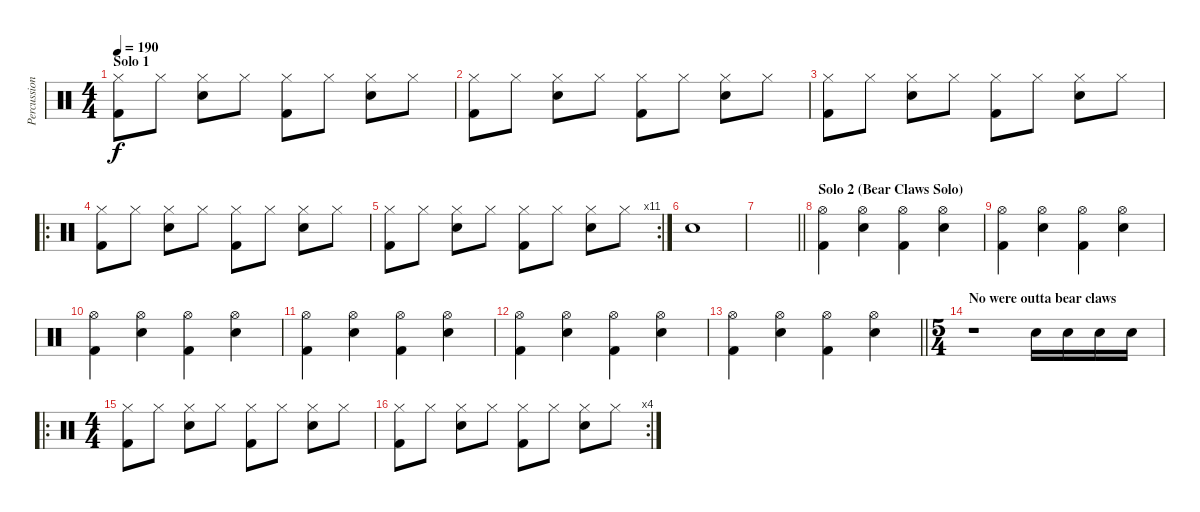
\track ("Percussion" "Percussion") {instrument percussion}
\staff {score}
\articulation defaults
\ts (4 4)
\section ("" "Solo 1")
\tempo 190
\clef neutral
\ks c
("Hi-Hat (closed)" "Kick (hit) 2").8{dy f} "Hi-Hat (closed)".8 ("Hi-Hat (closed)" "Snare (hit) 2").8 "Hi-Hat (closed)".8 ("Hi-Hat (closed)" "Kick (hit) 2").8 "Hi-Hat (closed)".8 ("Hi-Hat (closed)" "Snare (hit) 2").8 "Hi-Hat (closed)".8 |
("Hi-Hat (closed)" "Kick (hit) 2").8 "Hi-Hat (closed)".8 ("Hi-Hat (closed)" "Snare (hit) 2").8 "Hi-Hat (closed)".8 ("Hi-Hat (closed)" "Kick (hit) 2").8 "Hi-Hat (closed)".8 ("Hi-Hat (closed)" "Snare (hit) 2").8 "Hi-Hat (closed)".8 |
("Hi-Hat (closed)" "Kick (hit) 2").8 "Hi-Hat (closed)".8 ("Hi-Hat (closed)" "Snare (hit) 2").8 "Hi-Hat (closed)".8 ("Hi-Hat (closed)" "Kick (hit) 2").8 "Hi-Hat (closed)".8 ("Hi-Hat (closed)" "Snare (hit) 2").8 "Hi-Hat (closed)".8 |
\ro
("Hi-Hat (closed)" "Kick (hit) 2").8 "Hi-Hat (closed)".8 ("Hi-Hat (closed)" "Snare (hit) 2").8 "Hi-Hat (closed)".8 ("Hi-Hat (closed)" "Kick (hit) 2").8 "Hi-Hat (closed)".8 ("Hi-Hat (closed)" "Snare (hit) 2").8 "Hi-Hat (closed)".8 |
\rc 11
("Hi-Hat (closed)" "Kick (hit) 2").8 "Hi-Hat (closed)".8 ("Hi-Hat (closed)" "Snare (hit) 2").8 "Hi-Hat (closed)".8 ("Hi-Hat (closed)" "Kick (hit) 2").8 "Hi-Hat (closed)".8 ("Hi-Hat (closed)" "Snare (hit) 2").8 "Hi-Hat (closed)".8 |
"Snare (hit) 2".1 |
\barLineRight lightlight
|
\section ("" "Solo 2 (Bear Claws Solo)")
("Hi-Hat (open)" "Kick (hit) 2").4 ("Hi-Hat (open)" "Snare (hit) 2").4 ("Hi-Hat (open)" "Kick (hit) 2").4 ("Hi-Hat (open)" "Snare (hit) 2").4 |
("Hi-Hat (open)" "Kick (hit) 2").4 ("Hi-Hat (open)" "Snare (hit) 2").4 ("Hi-Hat (open)" "Kick (hit) 2").4 ("Hi-Hat (open)" "Snare (hit) 2").4 |
("Hi-Hat (open)" "Kick (hit) 2").4 ("Hi-Hat (open)" "Snare (hit) 2").4 ("Hi-Hat (open)" "Kick (hit) 2").4 ("Hi-Hat (open)" "Snare (hit) 2").4 |
("Hi-Hat (open)" "Kick (hit) 2").4 ("Hi-Hat (open)" "Snare (hit) 2").4 ("Hi-Hat (open)" "Kick (hit) 2").4 ("Hi-Hat (open)" "Snare (hit) 2").4 |
("Hi-Hat (open)" "Kick (hit) 2").4 ("Hi-Hat (open)" "Snare (hit) 2").4 ("Hi-Hat (open)" "Kick (hit) 2").4 ("Hi-Hat (open)" "Snare (hit) 2").4 |
\barLineRight lightlight
("Hi-Hat (open)" "Kick (hit) 2").4 ("Hi-Hat (open)" "Snare (hit) 2").4 ("Hi-Hat (open)" "Kick (hit) 2").4 ("Hi-Hat (open)" "Snare (hit) 2").4 |
\ts (5 4)
\section ("" "No were outta bear claws")
r.1 "Snare (hit) 2".16 "Snare (hit) 2".16 "Snare (hit) 2".16 "Snare (hit) 2".16 |
\ro
\ts (4 4)
("Hi-Hat (closed)" "Kick (hit) 2").8 "Hi-Hat (closed)".8 ("Hi-Hat (closed)" "Snare (hit) 2").8 "Hi-Hat (closed)".8 ("Hi-Hat (closed)" "Kick (hit) 2").8 "Hi-Hat (closed)".8 ("Hi-Hat (closed)" "Snare (hit) 2").8 "Hi-Hat (closed)".8 |
\rc 4
("Hi-Hat (closed)" "Kick (hit) 2").8 "Hi-Hat (closed)".8 ("Hi-Hat (closed)" "Snare (hit) 2").8 "Hi-Hat (closed)".8 ("Hi-Hat (closed)" "Kick (hit) 2").8 "Hi-Hat (closed)".8 ("Hi-Hat (closed)" "Snare (hit) 2").8 "Hi-Hat (closed)".8
